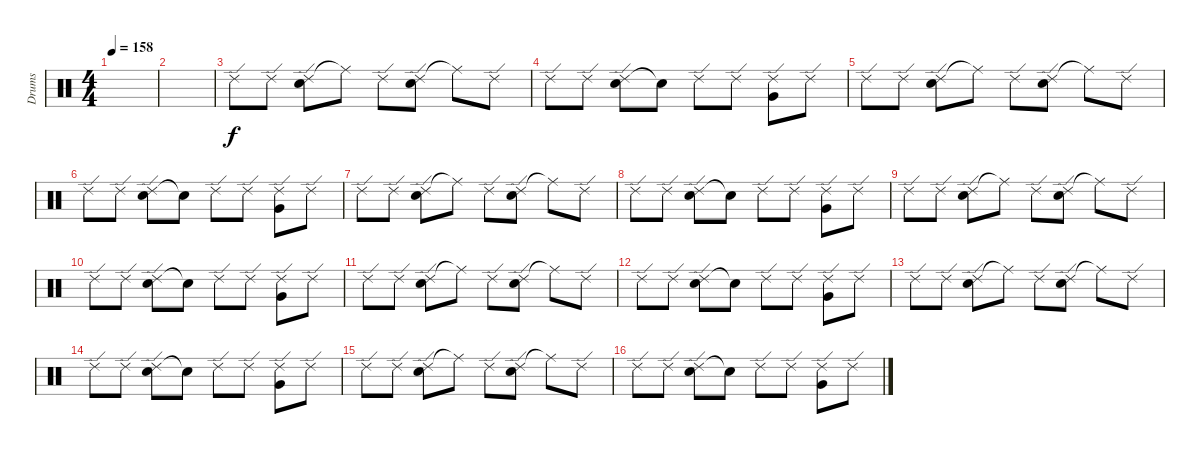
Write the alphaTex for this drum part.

\track ("Drums" "Drums") {instrument percussion}
\staff {score}
\articulation defaults
\ts (4 4)
\tempo 158
\clef neutral
\ks c
|
|
"Ride (edge) 2".8 "Ride (edge) 2".8 ("Ride (edge) 2" "Electric Snare (hit)").8 "Ride (middle)"{t}.8 "Ride (edge) 2".8 ("Ride (edge) 2" "Electric Snare (hit)").8 "Ride (middle)"{t}.8 "Ride (edge) 2".8 |
"Ride (edge) 2".8 "Ride (edge) 2".8 ("Ride (edge) 2" "Electric Snare (hit)").8 "Snare (hit)"{t}.8 "Ride (edge) 2".8 "Ride (edge) 2".8 ("Ride (edge) 2" "Very Low Tom (hit)").8 "Ride (edge) 2".8 |
"Ride (edge) 2".8 "Ride (edge) 2".8 ("Ride (edge) 2" "Electric Snare (hit)").8 "Ride (middle)"{t}.8 "Ride (edge) 2".8 ("Ride (edge) 2" "Electric Snare (hit)").8 "Ride (middle)"{t}.8 "Ride (edge) 2".8 |
"Ride (edge) 2".8 "Ride (edge) 2".8 ("Ride (edge) 2" "Electric Snare (hit)").8 "Snare (hit)"{t}.8 "Ride (edge) 2".8 "Ride (edge) 2".8 ("Ride (edge) 2" "Very Low Tom (hit)").8 "Ride (edge) 2".8 |
"Ride (edge) 2".8 "Ride (edge) 2".8 ("Ride (edge) 2" "Electric Snare (hit)").8 "Ride (middle)"{t}.8 "Ride (edge) 2".8 ("Ride (edge) 2" "Electric Snare (hit)").8 "Ride (middle)"{t}.8 "Ride (edge) 2".8 |
"Ride (edge) 2".8 "Ride (edge) 2".8 ("Ride (edge) 2" "Electric Snare (hit)").8 "Snare (hit)"{t}.8 "Ride (edge) 2".8 "Ride (edge) 2".8 ("Ride (edge) 2" "Very Low Tom (hit)").8 "Ride (edge) 2".8 |
"Ride (edge) 2".8 "Ride (edge) 2".8 ("Ride (edge) 2" "Electric Snare (hit)").8 "Ride (middle)"{t}.8 "Ride (edge) 2".8 ("Ride (edge) 2" "Electric Snare (hit)").8 "Ride (middle)"{t}.8 "Ride (edge) 2".8 |
"Ride (edge) 2".8 "Ride (edge) 2".8 ("Ride (edge) 2" "Electric Snare (hit)").8 "Snare (hit)"{t}.8 "Ride (edge) 2".8 "Ride (edge) 2".8 ("Ride (edge) 2" "Very Low Tom (hit)").8 "Ride (edge) 2".8 |
"Ride (edge) 2".8 "Ride (edge) 2".8 ("Ride (edge) 2" "Electric Snare (hit)").8 "Ride (middle)"{t}.8 "Ride (edge) 2".8 ("Ride (edge) 2" "Electric Snare (hit)").8 "Ride (middle)"{t}.8 "Ride (edge) 2".8 |
"Ride (edge) 2".8 "Ride (edge) 2".8 ("Ride (edge) 2" "Electric Snare (hit)").8 "Snare (hit)"{t}.8 "Ride (edge) 2".8 "Ride (edge) 2".8 ("Ride (edge) 2" "Very Low Tom (hit)").8 "Ride (edge) 2".8 |
"Ride (edge) 2".8 "Ride (edge) 2".8 ("Ride (edge) 2" "Electric Snare (hit)").8 "Ride (middle)"{t}.8 "Ride (edge) 2".8 ("Ride (edge) 2" "Electric Snare (hit)").8 "Ride (middle)"{t}.8 "Ride (edge) 2".8 |
"Ride (edge) 2".8 "Ride (edge) 2".8 ("Ride (edge) 2" "Electric Snare (hit)").8 "Snare (hit)"{t}.8 "Ride (edge) 2".8 "Ride (edge) 2".8 ("Ride (edge) 2" "Very Low Tom (hit)").8 "Ride (edge) 2".8 |
"Ride (edge) 2".8 "Ride (edge) 2".8 ("Ride (edge) 2" "Electric Snare (hit)").8 "Ride (middle)"{t}.8 "Ride (edge) 2".8 ("Ride (edge) 2" "Electric Snare (hit)").8 "Ride (middle)"{t}.8 "Ride (edge) 2".8 |
"Ride (edge) 2".8 "Ride (edge) 2".8 ("Ride (edge) 2" "Electric Snare (hit)").8 "Snare (hit)"{t}.8 "Ride (edge) 2".8 "Ride (edge) 2".8 ("Ride (edge) 2" "Very Low Tom (hit)").8 "Ride (edge) 2".8
